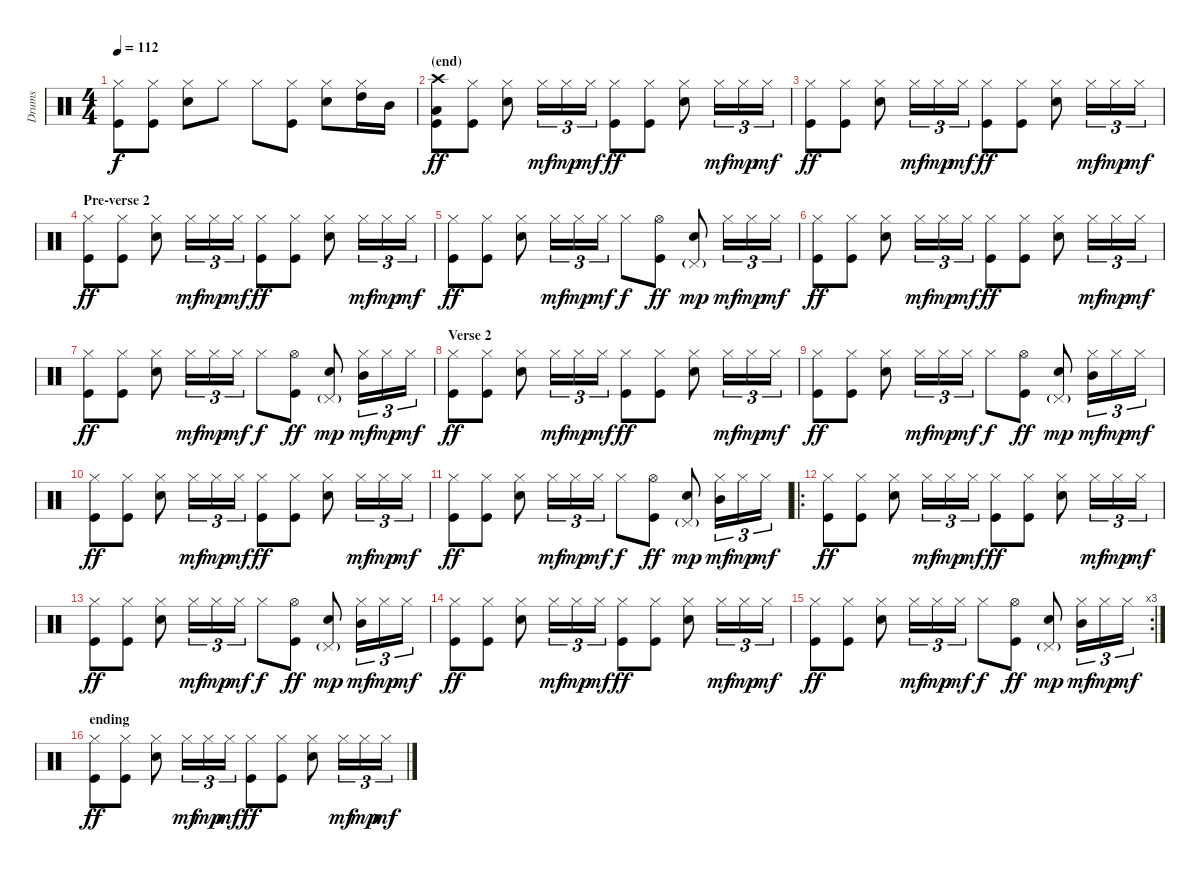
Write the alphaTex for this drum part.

\track ("Drums" "Drums") {instrument percussion}
\staff {score}
\articulation defaults
\ts (4 4)
\tempo 112
\clef neutral
\ks c
("Hi-Hat (closed)" "Kick (hit)").8{dy f} ("Hi-Hat (closed)" "Kick (hit)").8 ("Hi-Hat (closed)" "Electric Snare (hit)").8 "Hi-Hat (closed)".8 "Hi-Hat (closed)".8 ("Hi-Hat (closed)" "Kick (hit)").8 ("Hi-Hat (closed)" "Electric Snare (hit)").8 ("Hi-Hat (closed)" "High Tom (hit)").16 "Mid Tom (hit)".16 |
\section ("" "(end)")
("Crash high (hit)" "Low Tom (hit)" "Kick (hit)").8{dy ff} ("Hi-Hat (closed)" "Kick (hit)").8 ("Hi-Hat (closed)" "Electric Snare (hit)").8 "Hi-Hat (closed)".16{tu (3 2) dy mf} "Hi-Hat (closed)".16{tu (3 2) dy mp} "Hi-Hat (closed)".16{tu (3 2) dy mf} ("Hi-Hat (closed)" "Kick (hit)").8{dy ff} ("Hi-Hat (closed)" "Kick (hit)").8 ("Hi-Hat (closed)" "Electric Snare (hit)").8 "Hi-Hat (closed)".16{tu (3 2) dy mf} "Hi-Hat (closed)".16{tu (3 2) dy mp} "Hi-Hat (closed)".16{tu (3 2) dy mf} |
("Hi-Hat (closed)" "Kick (hit)").8{dy ff} ("Hi-Hat (closed)" "Kick (hit)").8 ("Hi-Hat (closed)" "Electric Snare (hit)").8 "Hi-Hat (closed)".16{tu (3 2) dy mf} "Hi-Hat (closed)".16{tu (3 2) dy mp} "Hi-Hat (closed)".16{tu (3 2) dy mf} ("Hi-Hat (closed)" "Kick (hit)").8{dy ff} ("Hi-Hat (closed)" "Kick (hit)").8 ("Hi-Hat (closed)" "Electric Snare (hit)").8 "Hi-Hat (closed)".16{tu (3 2) dy mf} "Hi-Hat (closed)".16{tu (3 2) dy mp} "Hi-Hat (closed)".16{tu (3 2) dy mf} |
\section ("" "Pre-verse 2")
("Hi-Hat (closed)" "Kick (hit)").8{dy ff} ("Hi-Hat (closed)" "Kick (hit)").8 ("Hi-Hat (closed)" "Electric Snare (hit)").8 "Hi-Hat (closed)".16{tu (3 2) dy mf} "Hi-Hat (closed)".16{tu (3 2) dy mp} "Hi-Hat (closed)".16{tu (3 2) dy mf} ("Hi-Hat (closed)" "Kick (hit)").8{dy ff} ("Hi-Hat (closed)" "Kick (hit)").8 ("Hi-Hat (closed)" "Electric Snare (hit)").8 "Hi-Hat (closed)".16{tu (3 2) dy mf} "Hi-Hat (closed)".16{tu (3 2) dy mp} "Hi-Hat (closed)".16{tu (3 2) dy mf} |
("Hi-Hat (closed)" "Kick (hit)").8{dy ff} ("Hi-Hat (closed)" "Kick (hit)").8 ("Hi-Hat (closed)" "Electric Snare (hit)").8 "Hi-Hat (closed)".16{tu (3 2) dy mf} "Hi-Hat (closed)".16{tu (3 2) dy mp} "Hi-Hat (closed)".16{tu (3 2) dy mf} "Hi-Hat (closed)".8{dy f} ("Hi-Hat (open)" "Kick (hit)").8{dy ff} ("Pedal Hi-Hat (hit)"{g} "Electric Snare (hit)").8{dy mp} "Hi-Hat (closed)".16{tu (3 2) dy mf} "Hi-Hat (closed)".16{tu (3 2) dy mp} "Hi-Hat (closed)".16{tu (3 2) dy mf} |
("Hi-Hat (closed)" "Kick (hit)").8{dy ff} ("Hi-Hat (closed)" "Kick (hit)").8 ("Hi-Hat (closed)" "Electric Snare (hit)").8 "Hi-Hat (closed)".16{tu (3 2) dy mf} "Hi-Hat (closed)".16{tu (3 2) dy mp} "Hi-Hat (closed)".16{tu (3 2) dy mf} ("Hi-Hat (closed)" "Kick (hit)").8{dy ff} ("Hi-Hat (closed)" "Kick (hit)").8 ("Hi-Hat (closed)" "Electric Snare (hit)").8 "Hi-Hat (closed)".16{tu (3 2) dy mf} "Hi-Hat (closed)".16{tu (3 2) dy mp} "Hi-Hat (closed)".16{tu (3 2) dy mf} |
("Hi-Hat (closed)" "Kick (hit)").8{dy ff} ("Hi-Hat (closed)" "Kick (hit)").8 ("Hi-Hat (closed)" "Electric Snare (hit)").8 "Hi-Hat (closed)".16{tu (3 2) dy mf} "Hi-Hat (closed)".16{tu (3 2) dy mp} "Hi-Hat (closed)".16{tu (3 2) dy mf} "Hi-Hat (closed)".8{dy f} ("Hi-Hat (open)" "Kick (hit)").8{dy ff} ("Pedal Hi-Hat (hit)"{g} "Electric Snare (hit)").8{dy mp} ("Hi-Hat (closed)" "Mid Tom (hit)").16{tu (3 2) dy mf} "Hi-Hat (closed)".16{tu (3 2) dy mp} "Hi-Hat (closed)".16{tu (3 2) dy mf} |
\section ("" "Verse 2")
("Hi-Hat (closed)" "Kick (hit)").8{dy ff} ("Hi-Hat (closed)" "Kick (hit)").8 ("Hi-Hat (closed)" "Electric Snare (hit)").8 "Hi-Hat (closed)".16{tu (3 2) dy mf} "Hi-Hat (closed)".16{tu (3 2) dy mp} "Hi-Hat (closed)".16{tu (3 2) dy mf} ("Hi-Hat (closed)" "Kick (hit)").8{dy ff} ("Hi-Hat (closed)" "Kick (hit)").8 ("Hi-Hat (closed)" "Electric Snare (hit)").8 "Hi-Hat (closed)".16{tu (3 2) dy mf} "Hi-Hat (closed)".16{tu (3 2) dy mp} "Hi-Hat (closed)".16{tu (3 2) dy mf} |
("Hi-Hat (closed)" "Kick (hit)").8{dy ff} ("Hi-Hat (closed)" "Kick (hit)").8 ("Hi-Hat (closed)" "Electric Snare (hit)").8 "Hi-Hat (closed)".16{tu (3 2) dy mf} "Hi-Hat (closed)".16{tu (3 2) dy mp} "Hi-Hat (closed)".16{tu (3 2) dy mf} "Hi-Hat (closed)".8{dy f} ("Hi-Hat (open)" "Kick (hit)").8{dy ff} ("Pedal Hi-Hat (hit)"{g} "Electric Snare (hit)").8{dy mp} ("Hi-Hat (closed)" "Mid Tom (hit)").16{tu (3 2) dy mf} "Hi-Hat (closed)".16{tu (3 2) dy mp} "Hi-Hat (closed)".16{tu (3 2) dy mf} |
("Hi-Hat (closed)" "Kick (hit)").8{dy ff} ("Hi-Hat (closed)" "Kick (hit)").8 ("Hi-Hat (closed)" "Electric Snare (hit)").8 "Hi-Hat (closed)".16{tu (3 2) dy mf} "Hi-Hat (closed)".16{tu (3 2) dy mp} "Hi-Hat (closed)".16{tu (3 2) dy mf} ("Hi-Hat (closed)" "Kick (hit)").8{dy ff} ("Hi-Hat (closed)" "Kick (hit)").8 ("Hi-Hat (closed)" "Electric Snare (hit)").8 "Hi-Hat (closed)".16{tu (3 2) dy mf} "Hi-Hat (closed)".16{tu (3 2) dy mp} "Hi-Hat (closed)".16{tu (3 2) dy mf} |
("Hi-Hat (closed)" "Kick (hit)").8{dy ff} ("Hi-Hat (closed)" "Kick (hit)").8 ("Hi-Hat (closed)" "Electric Snare (hit)").8 "Hi-Hat (closed)".16{tu (3 2) dy mf} "Hi-Hat (closed)".16{tu (3 2) dy mp} "Hi-Hat (closed)".16{tu (3 2) dy mf} "Hi-Hat (closed)".8{dy f} ("Hi-Hat (open)" "Kick (hit)").8{dy ff} ("Pedal Hi-Hat (hit)"{g} "Electric Snare (hit)").8{dy mp} ("Hi-Hat (closed)" "Mid Tom (hit)").16{tu (3 2) dy mf} "Hi-Hat (closed)".16{tu (3 2) dy mp} "Hi-Hat (closed)".16{tu (3 2) dy mf} |
\ro
("Hi-Hat (closed)" "Kick (hit)").8{dy ff} ("Hi-Hat (closed)" "Kick (hit)").8 ("Hi-Hat (closed)" "Electric Snare (hit)").8 "Hi-Hat (closed)".16{tu (3 2) dy mf} "Hi-Hat (closed)".16{tu (3 2) dy mp} "Hi-Hat (closed)".16{tu (3 2) dy mf} ("Hi-Hat (closed)" "Kick (hit)").8{dy ff} ("Hi-Hat (closed)" "Kick (hit)").8 ("Hi-Hat (closed)" "Electric Snare (hit)").8 "Hi-Hat (closed)".16{tu (3 2) dy mf} "Hi-Hat (closed)".16{tu (3 2) dy mp} "Hi-Hat (closed)".16{tu (3 2) dy mf} |
("Hi-Hat (closed)" "Kick (hit)").8{dy ff} ("Hi-Hat (closed)" "Kick (hit)").8 ("Hi-Hat (closed)" "Electric Snare (hit)").8 "Hi-Hat (closed)".16{tu (3 2) dy mf} "Hi-Hat (closed)".16{tu (3 2) dy mp} "Hi-Hat (closed)".16{tu (3 2) dy mf} "Hi-Hat (closed)".8{dy f} ("Hi-Hat (open)" "Kick (hit)").8{dy ff} ("Pedal Hi-Hat (hit)"{g} "Electric Snare (hit)").8{dy mp} ("Hi-Hat (closed)" "Mid Tom (hit)").16{tu (3 2) dy mf} "Hi-Hat (closed)".16{tu (3 2) dy mp} "Hi-Hat (closed)".16{tu (3 2) dy mf} |
("Hi-Hat (closed)" "Kick (hit)").8{dy ff} ("Hi-Hat (closed)" "Kick (hit)").8 ("Hi-Hat (closed)" "Electric Snare (hit)").8 "Hi-Hat (closed)".16{tu (3 2) dy mf} "Hi-Hat (closed)".16{tu (3 2) dy mp} "Hi-Hat (closed)".16{tu (3 2) dy mf} ("Hi-Hat (closed)" "Kick (hit)").8{dy ff} ("Hi-Hat (closed)" "Kick (hit)").8 ("Hi-Hat (closed)" "Electric Snare (hit)").8 "Hi-Hat (closed)".16{tu (3 2) dy mf} "Hi-Hat (closed)".16{tu (3 2) dy mp} "Hi-Hat (closed)".16{tu (3 2) dy mf} |
\rc 3
("Hi-Hat (closed)" "Kick (hit)").8{dy ff} ("Hi-Hat (closed)" "Kick (hit)").8 ("Hi-Hat (closed)" "Electric Snare (hit)").8 "Hi-Hat (closed)".16{tu (3 2) dy mf} "Hi-Hat (closed)".16{tu (3 2) dy mp} "Hi-Hat (closed)".16{tu (3 2) dy mf} "Hi-Hat (closed)".8{dy f} ("Hi-Hat (open)" "Kick (hit)").8{dy ff} ("Pedal Hi-Hat (hit)"{g} "Electric Snare (hit)").8{dy mp} ("Hi-Hat (closed)" "Mid Tom (hit)").16{tu (3 2) dy mf} "Hi-Hat (closed)".16{tu (3 2) dy mp} "Hi-Hat (closed)".16{tu (3 2) dy mf} |
\section ("" "ending")
("Hi-Hat (closed)" "Kick (hit)").8{dy ff} ("Hi-Hat (closed)" "Kick (hit)").8 ("Hi-Hat (closed)" "Electric Snare (hit)").8 "Hi-Hat (closed)".16{tu (3 2) dy mf} "Hi-Hat (closed)".16{tu (3 2) dy mp} "Hi-Hat (closed)".16{tu (3 2) dy mf} ("Hi-Hat (closed)" "Kick (hit)").8{dy ff} ("Hi-Hat (closed)" "Kick (hit)").8 ("Hi-Hat (closed)" "Electric Snare (hit)").8 "Hi-Hat (closed)".16{tu (3 2) dy mf} "Hi-Hat (closed)".16{tu (3 2) dy mp} "Hi-Hat (closed)".16{tu (3 2) dy mf}
